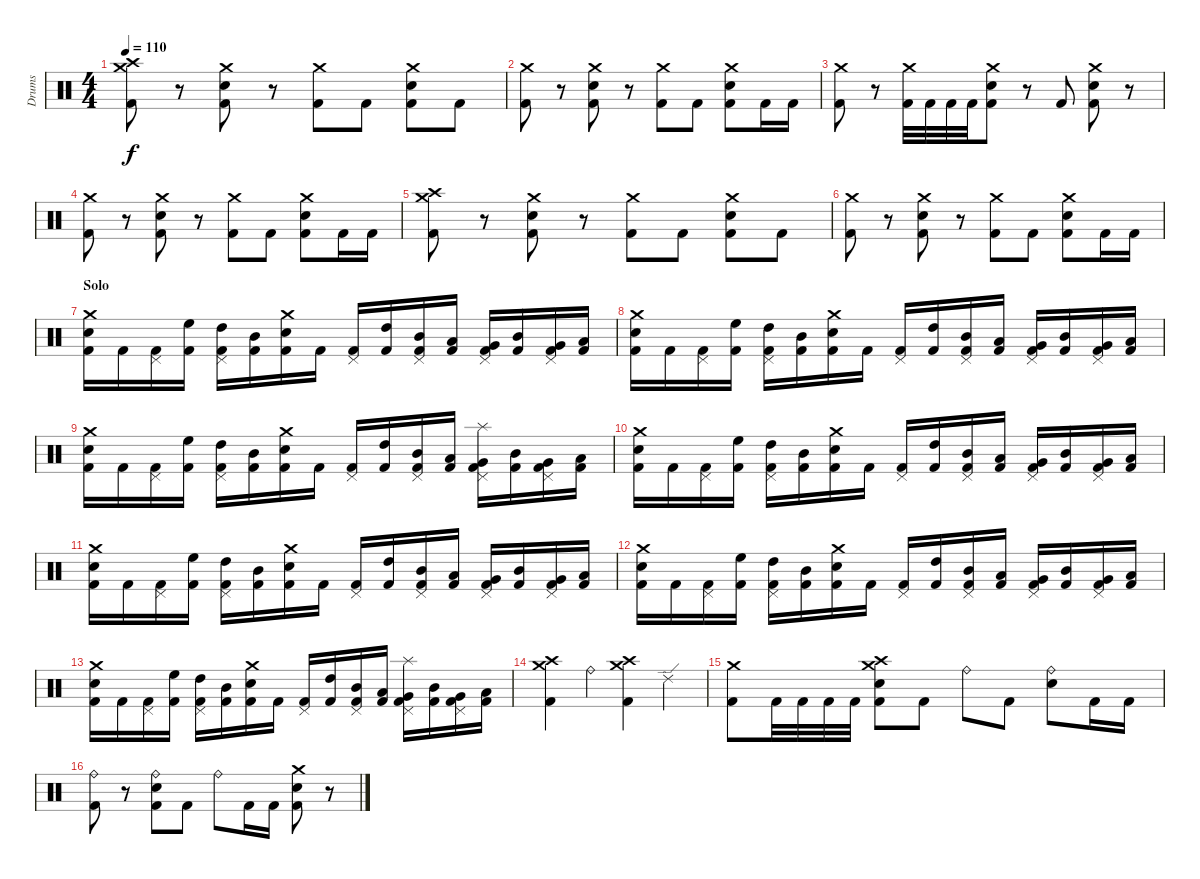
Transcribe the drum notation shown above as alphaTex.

\track ("Drums" "Drums") {instrument percussion}
\staff {score}
\articulation defaults
\ts (4 4)
\tempo 110
\clef neutral
\ks c
("Crash high (hit)" "Crash medium (hit)" "Kick (hit) 2").8{dy f} r.8 ("Crash medium (hit)" "Electric Snare (hit)" "Kick (hit) 2").8 r.8 ("Crash medium (hit)" "Kick (hit) 2").8 "Kick (hit) 2".8 ("Crash medium (hit)" "Electric Snare (hit)" "Kick (hit) 2").8 "Kick (hit) 2".8 |
("Crash medium (hit)" "Kick (hit) 2").8 r.8 ("Crash medium (hit)" "Electric Snare (hit)" "Kick (hit) 2").8 r.8 ("Crash medium (hit)" "Kick (hit) 2").8 "Kick (hit) 2".8 ("Crash medium (hit)" "Electric Snare (hit)" "Kick (hit) 2").8 "Kick (hit) 2".16 "Kick (hit) 2".16 |
("Crash medium (hit)" "Kick (hit) 2").8 r.8 ("Crash medium (hit)" "Kick (hit) 2").32 "Kick (hit) 2".32 "Kick (hit) 2".32 "Kick (hit) 2".32 ("Crash medium (hit)" "Snare (hit) 2" "Kick (hit) 2").8 r.8 "Kick (hit) 2".8 ("Crash medium (hit)" "Snare (hit) 2" "Kick (hit) 2").8 r.8 |
("Crash medium (hit)" "Kick (hit) 2").8 r.8 ("Crash medium (hit)" "Electric Snare (hit)" "Kick (hit) 2").8 r.8 ("Crash medium (hit)" "Kick (hit) 2").8 "Kick (hit) 2".8 ("Crash medium (hit)" "Electric Snare (hit)" "Kick (hit) 2").8 "Kick (hit) 2".16 "Kick (hit) 2".16 |
("Crash high (hit)" "Crash medium (hit)" "Kick (hit) 2").8 r.8 ("Crash medium (hit)" "Electric Snare (hit)" "Kick (hit) 2").8 r.8 ("Crash medium (hit)" "Kick (hit) 2").8 "Kick (hit) 2".8 ("Crash medium (hit)" "Electric Snare (hit)" "Kick (hit) 2").8 "Kick (hit) 2".8 |
("Crash medium (hit)" "Kick (hit) 2").8 r.8 ("Crash medium (hit)" "Electric Snare (hit)" "Kick (hit) 2").8 r.8 ("Crash medium (hit)" "Kick (hit) 2").8 "Kick (hit) 2".8 ("Crash medium (hit)" "Electric Snare (hit)" "Kick (hit) 2").8 "Kick (hit) 2".16 "Kick (hit) 2".16 |
\section ("" "Solo")
("Crash medium (hit)" "Electric Snare (hit)" "Kick (hit) 2").16 "Kick (hit) 2".16 ("Pedal Hi-Hat (hit)" "Kick (hit) 2").16 ("High Floor Tom (hit)" "Kick (hit) 2").16 ("Pedal Hi-Hat (hit)" "High Tom (hit)" "Kick (hit) 2").16 ("Mid Tom (hit)" "Kick (hit) 2").16 ("Crash medium (hit)" "Electric Snare (hit)" "Kick (hit) 2").16 "Kick (hit) 2".16 ("Pedal Hi-Hat (hit)" "Kick (hit) 2").16 ("High Tom (hit)" "Kick (hit) 2").16 ("Pedal Hi-Hat (hit)" "Mid Tom (hit)" "Kick (hit) 2").16 ("Low Tom (hit)" "Kick (hit) 2").16 ("Pedal Hi-Hat (hit)" "Very Low Tom (hit)" "Kick (hit) 2").16 ("Mid Tom (hit)" "Kick (hit) 2").16 ("Pedal Hi-Hat (hit)" "Very Low Tom (hit)" "Kick (hit) 2").16 ("Low Floor Tom (hit)" "Kick (hit) 2").16 |
("Crash medium (hit)" "Electric Snare (hit)" "Kick (hit) 2").16 "Kick (hit) 2".16 ("Pedal Hi-Hat (hit)" "Kick (hit) 2").16 ("High Floor Tom (hit)" "Kick (hit) 2").16 ("Pedal Hi-Hat (hit)" "High Tom (hit)" "Kick (hit) 2").16 ("Mid Tom (hit)" "Kick (hit) 2").16 ("Crash medium (hit)" "Electric Snare (hit)" "Kick (hit) 2").16 "Kick (hit) 2".16 ("Pedal Hi-Hat (hit)" "Kick (hit) 2").16 ("High Tom (hit)" "Kick (hit) 2").16 ("Pedal Hi-Hat (hit)" "Mid Tom (hit)" "Kick (hit) 2").16 ("Low Tom (hit)" "Kick (hit) 2").16 ("Pedal Hi-Hat (hit)" "Very Low Tom (hit)" "Kick (hit) 2").16 ("Mid Tom (hit)" "Kick (hit) 2").16 ("Pedal Hi-Hat (hit)" "Very Low Tom (hit)" "Kick (hit) 2").16 ("Low Floor Tom (hit)" "Kick (hit) 2").16 |
("Crash medium (hit)" "Electric Snare (hit)" "Kick (hit) 2").16 "Kick (hit) 2".16 ("Pedal Hi-Hat (hit)" "Kick (hit) 2").16 ("High Floor Tom (hit)" "Kick (hit) 2").16 ("Pedal Hi-Hat (hit)" "High Tom (hit)" "Kick (hit) 2").16 ("Mid Tom (hit)" "Kick (hit) 2").16 ("Crash medium (hit)" "Electric Snare (hit)" "Kick (hit) 2").16 "Kick (hit) 2".16 ("Pedal Hi-Hat (hit)" "Kick (hit) 2").16 ("High Tom (hit)" "Kick (hit) 2").16 ("Pedal Hi-Hat (hit)" "Mid Tom (hit)" "Kick (hit) 2").16 ("Low Tom (hit)" "Kick (hit) 2").16 ("Splash (hit)" "Pedal Hi-Hat (hit)" "Very Low Tom (hit)" "Kick (hit) 2").16 ("Mid Tom (hit)" "Kick (hit) 2").16 ("Pedal Hi-Hat (hit)" "Very Low Tom (hit)" "Kick (hit) 2").16 ("Low Floor Tom (hit)" "Kick (hit) 2").16 |
("Crash medium (hit)" "Electric Snare (hit)" "Kick (hit) 2").16 "Kick (hit) 2".16 ("Pedal Hi-Hat (hit)" "Kick (hit) 2").16 ("High Floor Tom (hit)" "Kick (hit) 2").16 ("Pedal Hi-Hat (hit)" "High Tom (hit)" "Kick (hit) 2").16 ("Mid Tom (hit)" "Kick (hit) 2").16 ("Crash medium (hit)" "Electric Snare (hit)" "Kick (hit) 2").16 "Kick (hit) 2".16 ("Pedal Hi-Hat (hit)" "Kick (hit) 2").16 ("High Tom (hit)" "Kick (hit) 2").16 ("Pedal Hi-Hat (hit)" "Mid Tom (hit)" "Kick (hit) 2").16 ("Low Tom (hit)" "Kick (hit) 2").16 ("Pedal Hi-Hat (hit)" "Very Low Tom (hit)" "Kick (hit) 2").16 ("Mid Tom (hit)" "Kick (hit) 2").16 ("Pedal Hi-Hat (hit)" "Very Low Tom (hit)" "Kick (hit) 2").16 ("Low Floor Tom (hit)" "Kick (hit) 2").16 |
("Crash medium (hit)" "Electric Snare (hit)" "Kick (hit) 2").16 "Kick (hit) 2".16 ("Pedal Hi-Hat (hit)" "Kick (hit) 2").16 ("High Floor Tom (hit)" "Kick (hit) 2").16 ("Pedal Hi-Hat (hit)" "High Tom (hit)" "Kick (hit) 2").16 ("Mid Tom (hit)" "Kick (hit) 2").16 ("Crash medium (hit)" "Electric Snare (hit)" "Kick (hit) 2").16 "Kick (hit) 2".16 ("Pedal Hi-Hat (hit)" "Kick (hit) 2").16 ("High Tom (hit)" "Kick (hit) 2").16 ("Pedal Hi-Hat (hit)" "Mid Tom (hit)" "Kick (hit) 2").16 ("Low Tom (hit)" "Kick (hit) 2").16 ("Pedal Hi-Hat (hit)" "Very Low Tom (hit)" "Kick (hit) 2").16 ("Mid Tom (hit)" "Kick (hit) 2").16 ("Pedal Hi-Hat (hit)" "Very Low Tom (hit)" "Kick (hit) 2").16 ("Low Floor Tom (hit)" "Kick (hit) 2").16 |
("Crash medium (hit)" "Electric Snare (hit)" "Kick (hit) 2").16 "Kick (hit) 2".16 ("Pedal Hi-Hat (hit)" "Kick (hit) 2").16 ("High Floor Tom (hit)" "Kick (hit) 2").16 ("Pedal Hi-Hat (hit)" "High Tom (hit)" "Kick (hit) 2").16 ("Mid Tom (hit)" "Kick (hit) 2").16 ("Crash medium (hit)" "Electric Snare (hit)" "Kick (hit) 2").16 "Kick (hit) 2".16 ("Pedal Hi-Hat (hit)" "Kick (hit) 2").16 ("High Tom (hit)" "Kick (hit) 2").16 ("Pedal Hi-Hat (hit)" "Mid Tom (hit)" "Kick (hit) 2").16 ("Low Tom (hit)" "Kick (hit) 2").16 ("Pedal Hi-Hat (hit)" "Very Low Tom (hit)" "Kick (hit) 2").16 ("Mid Tom (hit)" "Kick (hit) 2").16 ("Pedal Hi-Hat (hit)" "Very Low Tom (hit)" "Kick (hit) 2").16 ("Low Floor Tom (hit)" "Kick (hit) 2").16 |
("Crash medium (hit)" "Electric Snare (hit)" "Kick (hit) 2").16 "Kick (hit) 2".16 ("Pedal Hi-Hat (hit)" "Kick (hit) 2").16 ("High Floor Tom (hit)" "Kick (hit) 2").16 ("Pedal Hi-Hat (hit)" "High Tom (hit)" "Kick (hit) 2").16 ("Mid Tom (hit)" "Kick (hit) 2").16 ("Crash medium (hit)" "Electric Snare (hit)" "Kick (hit) 2").16 "Kick (hit) 2".16 ("Pedal Hi-Hat (hit)" "Kick (hit) 2").16 ("High Tom (hit)" "Kick (hit) 2").16 ("Pedal Hi-Hat (hit)" "Mid Tom (hit)" "Kick (hit) 2").16 ("Low Tom (hit)" "Kick (hit) 2").16 ("Splash (hit)" "Pedal Hi-Hat (hit)" "Very Low Tom (hit)" "Kick (hit) 2").16 ("Mid Tom (hit)" "Kick (hit) 2").16 ("Pedal Hi-Hat (hit)" "Very Low Tom (hit)" "Kick (hit) 2").16 ("Low Floor Tom (hit)" "Kick (hit) 2").16 |
("Crash high (hit)" "Crash medium (hit)" "Kick (hit) 2").4 "Ride (bell)".4 ("Crash high (hit)" "Crash medium (hit)" "Kick (hit) 2").4 "Ride (edge) 2".4 |
("Crash medium (hit)" "Kick (hit) 2").8 "Kick (hit) 2".32 "Kick (hit) 2".32 "Kick (hit) 2".32 "Kick (hit) 2".32 ("Crash high (hit)" "Crash medium (hit)" "Electric Snare (hit)" "Kick (hit) 2").8 "Kick (hit) 2".8 "Ride (bell)".8 "Kick (hit) 2".8 ("Ride (bell)" "Electric Snare (hit)").8 "Kick (hit) 2".16 "Kick (hit) 2".16 |
("Ride (bell)" "Kick (hit) 2").8 r.8 ("Ride (bell)" "Electric Snare (hit)" "Kick (hit) 2").8 "Kick (hit) 2".8 "Ride (bell)".8 "Kick (hit) 2".16 "Kick (hit) 2".16 ("Crash medium (hit)" "Electric Snare (hit)" "Kick (hit) 2").8 r.8
